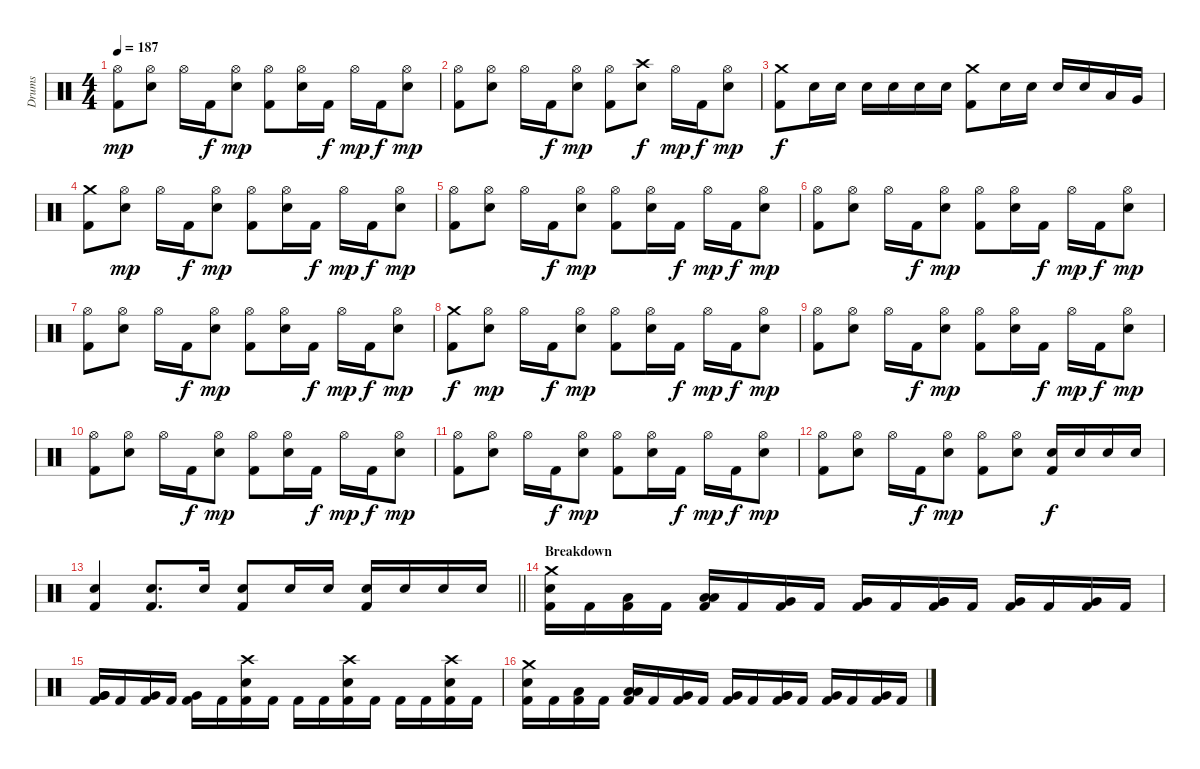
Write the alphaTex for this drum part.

\track ("Drums" "Drums") {instrument percussion}
\staff {score}
\articulation defaults
\ts (4 4)
\tempo 187
\clef neutral
\ks c
("Hi-Hat (open)" "Kick (hit) 2").8{dy mp} ("Hi-Hat (open)" "Snare (hit) 2").8 "Hi-Hat (open)".16 "Kick (hit) 2".16{dy f} ("Hi-Hat (open)" "Snare (hit) 2").8{dy mp} ("Hi-Hat (open)" "Kick (hit) 2").8 ("Hi-Hat (open)" "Snare (hit) 2").16 "Kick (hit) 2".16{dy f} "Hi-Hat (open)".16{dy mp} "Kick (hit) 2".16{dy f} ("Hi-Hat (open)" "Snare (hit) 2").8{dy mp} |
("Hi-Hat (open)" "Kick (hit) 2").8 ("Hi-Hat (open)" "Snare (hit) 2").8 "Hi-Hat (open)".16 "Kick (hit) 2".16{dy f} ("Hi-Hat (open)" "Snare (hit) 2").8{dy mp} ("Hi-Hat (open)" "Kick (hit) 2").8 ("Crash high (hit)" "Snare (hit) 2").8{dy f} "Hi-Hat (open)".16{dy mp} "Kick (hit) 2".16{dy f} ("Hi-Hat (open)" "Snare (hit) 2").8{dy mp} |
("Crash medium (hit)" "Kick (hit) 2").8{dy f} "Snare (hit) 2".16 "Snare (hit) 2".16 "Snare (hit) 2".16 "Snare (hit) 2".16 "Snare (hit) 2".16 "Snare (hit) 2".16 ("Crash medium (hit)" "Kick (hit) 2").8 "Snare (hit) 2".16 "Snare (hit) 2".16 "Snare (hit) 2".16 "Snare (hit) 2".16 "Low Tom (hit)".16 "Very Low Tom (hit)".16 |
("Crash medium (hit)" "Kick (hit) 2").8 ("Hi-Hat (open)" "Snare (hit) 2").8{dy mp} "Hi-Hat (open)".16 "Kick (hit) 2".16{dy f} ("Hi-Hat (open)" "Snare (hit) 2").8{dy mp} ("Hi-Hat (open)" "Kick (hit) 2").8 ("Hi-Hat (open)" "Snare (hit) 2").16 "Kick (hit) 2".16{dy f} "Hi-Hat (open)".16{dy mp} "Kick (hit) 2".16{dy f} ("Hi-Hat (open)" "Snare (hit) 2").8{dy mp} |
("Hi-Hat (open)" "Kick (hit) 2").8 ("Hi-Hat (open)" "Snare (hit) 2").8 "Hi-Hat (open)".16 "Kick (hit) 2".16{dy f} ("Hi-Hat (open)" "Snare (hit) 2").8{dy mp} ("Hi-Hat (open)" "Kick (hit) 2").8 ("Hi-Hat (open)" "Snare (hit) 2").16 "Kick (hit) 2".16{dy f} "Hi-Hat (open)".16{dy mp} "Kick (hit) 2".16{dy f} ("Hi-Hat (open)" "Snare (hit) 2").8{dy mp} |
("Hi-Hat (open)" "Kick (hit) 2").8 ("Hi-Hat (open)" "Snare (hit) 2").8 "Hi-Hat (open)".16 "Kick (hit) 2".16{dy f} ("Hi-Hat (open)" "Snare (hit) 2").8{dy mp} ("Hi-Hat (open)" "Kick (hit) 2").8 ("Hi-Hat (open)" "Snare (hit) 2").16 "Kick (hit) 2".16{dy f} "Hi-Hat (open)".16{dy mp} "Kick (hit) 2".16{dy f} ("Hi-Hat (open)" "Snare (hit) 2").8{dy mp} |
("Hi-Hat (open)" "Kick (hit) 2").8 ("Hi-Hat (open)" "Snare (hit) 2").8 "Hi-Hat (open)".16 "Kick (hit) 2".16{dy f} ("Hi-Hat (open)" "Snare (hit) 2").8{dy mp} ("Hi-Hat (open)" "Kick (hit) 2").8 ("Hi-Hat (open)" "Snare (hit) 2").16 "Kick (hit) 2".16{dy f} "Hi-Hat (open)".16{dy mp} "Kick (hit) 2".16{dy f} ("Hi-Hat (open)" "Snare (hit) 2").8{dy mp} |
("Crash medium (hit)" "Kick (hit) 2").8{dy f} ("Hi-Hat (open)" "Snare (hit) 2").8{dy mp} "Hi-Hat (open)".16 "Kick (hit) 2".16{dy f} ("Hi-Hat (open)" "Snare (hit) 2").8{dy mp} ("Hi-Hat (open)" "Kick (hit) 2").8 ("Hi-Hat (open)" "Snare (hit) 2").16 "Kick (hit) 2".16{dy f} "Hi-Hat (open)".16{dy mp} "Kick (hit) 2".16{dy f} ("Hi-Hat (open)" "Snare (hit) 2").8{dy mp} |
("Hi-Hat (open)" "Kick (hit) 2").8 ("Hi-Hat (open)" "Snare (hit) 2").8 "Hi-Hat (open)".16 "Kick (hit) 2".16{dy f} ("Hi-Hat (open)" "Snare (hit) 2").8{dy mp} ("Hi-Hat (open)" "Kick (hit) 2").8 ("Hi-Hat (open)" "Snare (hit) 2").16 "Kick (hit) 2".16{dy f} "Hi-Hat (open)".16{dy mp} "Kick (hit) 2".16{dy f} ("Hi-Hat (open)" "Snare (hit) 2").8{dy mp} |
("Hi-Hat (open)" "Kick (hit) 2").8 ("Hi-Hat (open)" "Snare (hit) 2").8 "Hi-Hat (open)".16 "Kick (hit) 2".16{dy f} ("Hi-Hat (open)" "Snare (hit) 2").8{dy mp} ("Hi-Hat (open)" "Kick (hit) 2").8 ("Hi-Hat (open)" "Snare (hit) 2").16 "Kick (hit) 2".16{dy f} "Hi-Hat (open)".16{dy mp} "Kick (hit) 2".16{dy f} ("Hi-Hat (open)" "Snare (hit) 2").8{dy mp} |
("Hi-Hat (open)" "Kick (hit) 2").8 ("Hi-Hat (open)" "Snare (hit) 2").8 "Hi-Hat (open)".16 "Kick (hit) 2".16{dy f} ("Hi-Hat (open)" "Snare (hit) 2").8{dy mp} ("Hi-Hat (open)" "Kick (hit) 2").8 ("Hi-Hat (open)" "Snare (hit) 2").16 "Kick (hit) 2".16{dy f} "Hi-Hat (open)".16{dy mp} "Kick (hit) 2".16{dy f} ("Hi-Hat (open)" "Snare (hit) 2").8{dy mp} |
("Hi-Hat (open)" "Kick (hit) 2").8 ("Hi-Hat (open)" "Snare (hit) 2").8 "Hi-Hat (open)".16 "Kick (hit) 2".16{dy f} ("Hi-Hat (open)" "Snare (hit) 2").8{dy mp} ("Hi-Hat (open)" "Kick (hit) 2").8 ("Hi-Hat (open)" "Snare (hit) 2").8 ("Snare (hit) 2" "Kick (hit) 2").16{dy f} "Snare (hit) 2".16 "Snare (hit) 2".16 "Snare (hit) 2".16 |
\barLineRight lightlight
("Snare (hit) 2" "Kick (hit) 2").4 ("Snare (hit) 2" "Kick (hit) 2").8{d} "Snare (hit) 2".16 ("Snare (hit) 2" "Kick (hit) 2").8 "Snare (hit) 2".16 "Snare (hit) 2".16 ("Snare (hit) 2" "Kick (hit) 2").16 "Snare (hit) 2".16 "Snare (hit) 2".16 "Snare (hit) 2".16 |
\section ("" "Breakdown")
("Crash medium (hit)" "Snare (hit) 2" "Kick (hit) 2").16 "Kick (hit) 2".16 ("Low Floor Tom (hit)" "Kick (hit) 2").16 "Kick (hit) 2".16 ("Low Floor Tom (hit)" "Low Floor Tom (hit)" "Kick (hit) 2").16 "Kick (hit) 2".16 ("Very Low Tom (hit)" "Kick (hit) 2").16 "Kick (hit) 2".16 ("Very Low Tom (hit)" "Kick (hit) 2").16 "Kick (hit) 2".16 ("Very Low Tom (hit)" "Very Low Tom (hit)" "Kick (hit) 2").16 "Kick (hit) 2".16 ("Very Low Tom (hit)" "Kick (hit) 2").16 "Kick (hit) 2".16 ("Very Low Tom (hit)" "Kick (hit) 2").16 "Kick (hit) 2".16 |
("Very Low Tom (hit)" "Very Low Tom (hit)" "Kick (hit) 2").16 "Kick (hit) 2".16 ("Very Low Tom (hit)" "Kick (hit) 2").16 "Kick (hit) 2".16 ("Very Low Tom (hit)" "Kick (hit) 2").16 "Kick (hit) 2".16 ("Crash high (hit)" "Snare (hit) 2" "Kick (hit) 2").16 "Kick (hit) 2".16 "Kick (hit) 2".16 "Kick (hit) 2".16 ("Crash high (hit)" "Snare (hit) 2" "Kick (hit) 2").16 "Kick (hit) 2".16 "Kick (hit) 2".16 "Kick (hit) 2".16 ("Crash high (hit)" "Snare (hit) 2" "Kick (hit) 2").16 "Kick (hit) 2".16 |
("Crash medium (hit)" "Snare (hit) 2" "Kick (hit) 2").16 "Kick (hit) 2".16 ("Low Floor Tom (hit)" "Kick (hit) 2").16 "Kick (hit) 2".16 ("Low Floor Tom (hit)" "Low Floor Tom (hit)" "Kick (hit) 2").16 "Kick (hit) 2".16 ("Very Low Tom (hit)" "Kick (hit) 2").16 "Kick (hit) 2".16 ("Very Low Tom (hit)" "Kick (hit) 2").16 "Kick (hit) 2".16 ("Very Low Tom (hit)" "Very Low Tom (hit)" "Kick (hit) 2").16 "Kick (hit) 2".16 ("Very Low Tom (hit)" "Kick (hit) 2").16 "Kick (hit) 2".16 ("Very Low Tom (hit)" "Kick (hit) 2").16 "Kick (hit) 2".16
